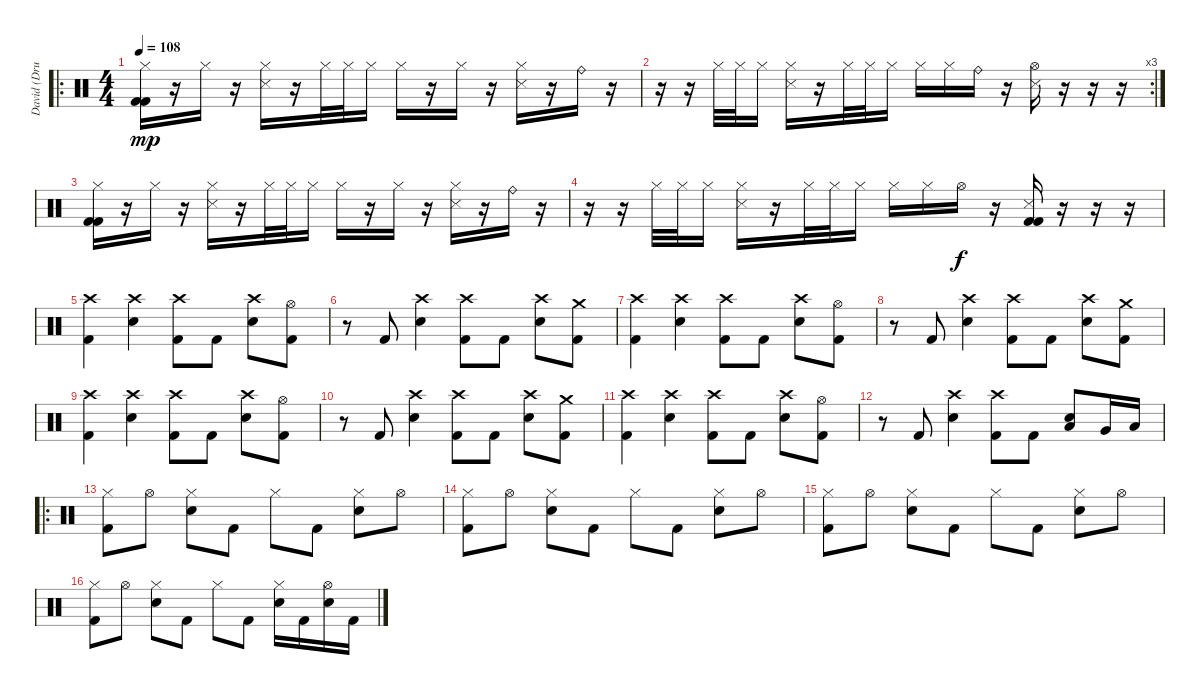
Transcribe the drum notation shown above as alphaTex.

\track ("David (Drumkit)" "David (Dru") {instrument percussion}
\staff {score}
\articulation defaults
\ro
\ts (4 4)
\tempo 108
\clef neutral
\ks c
("Hi-Hat (closed)" "Kick (hit) 2" "Kick (hit) 2").16{dy mp volume 7} r.16 "Hi-Hat (closed)".16 r.16 ("Hi-Hat (closed)" "Snare (side stick) 3").16 r.16 "Hi-Hat (closed)".32 "Hi-Hat (closed)".32 "Hi-Hat (closed)".16 "Hi-Hat (closed)".16 r.16 "Hi-Hat (closed)".16 r.16 ("Hi-Hat (closed)" "Snare (side stick) 3").16 r.16 "Ride (bell)".16 r.16 |
\rc 3
r.16{volume 7} r.16 "Hi-Hat (closed)".32 "Hi-Hat (closed)".32 "Hi-Hat (closed)".16 ("Hi-Hat (closed)" "Snare (side stick) 3").16 r.16 "Hi-Hat (closed)".32 "Hi-Hat (closed)".32 "Hi-Hat (closed)".16 "Hi-Hat (closed)".16 "Hi-Hat (closed)".16 "Ride (bell)".16 r.16 ("Hi-Hat (open)" "Snare (side stick) 3").16 r.16 r.16 r.16 |
("Hi-Hat (closed)" "Kick (hit) 2" "Kick (hit) 2").16{volume 7} r.16 "Hi-Hat (closed)".16 r.16 ("Hi-Hat (closed)" "Snare (side stick) 3").16 r.16 "Hi-Hat (closed)".32 "Hi-Hat (closed)".32 "Hi-Hat (closed)".16 "Hi-Hat (closed)".16 r.16 "Hi-Hat (closed)".16 r.16 ("Hi-Hat (closed)" "Snare (side stick) 3").16 r.16 "Ride (bell)".16 r.16 |
r.16{volume 7} r.16 "Hi-Hat (closed)".32 "Hi-Hat (closed)".32 "Hi-Hat (closed)".16 ("Hi-Hat (closed)" "Snare (side stick) 3").16 r.16 "Hi-Hat (closed)".32 "Hi-Hat (closed)".32 "Hi-Hat (closed)".16 "Hi-Hat (closed)".16 "Hi-Hat (closed)".16 "Hi-Hat (open)".16{dy f} r.16 ("Snare (side stick) 3" "Kick (hit) 2" "Kick (hit) 2").16{volume 13} r.16 r.16 r.16 |
("Crash high (hit)" "Kick (hit) 2").4 ("Crash high (hit)" "Electric Snare (hit)").4 ("Crash high (hit)" "Kick (hit) 2").8 "Kick (hit) 2".8 ("Crash high (hit)" "Electric Snare (hit)").8 ("Hi-Hat (open)" "Kick (hit) 2").8 |
r.8 "Kick (hit) 2".8 ("Crash high (hit)" "Electric Snare (hit)").4 ("Crash high (hit)" "Kick (hit) 2").8 "Kick (hit) 2".8 ("Crash high (hit)" "Electric Snare (hit)").8 ("Crash medium (hit)" "Kick (hit) 2").8 |
("Crash high (hit)" "Kick (hit) 2").4 ("Crash high (hit)" "Electric Snare (hit)").4 ("Crash high (hit)" "Kick (hit) 2").8 "Kick (hit) 2".8 ("Crash high (hit)" "Electric Snare (hit)").8 ("Hi-Hat (open)" "Kick (hit) 2").8 |
r.8 "Kick (hit) 2".8 ("Crash high (hit)" "Electric Snare (hit)").4 ("Crash high (hit)" "Kick (hit) 2").8 "Kick (hit) 2".8 ("Crash high (hit)" "Electric Snare (hit)").8 ("Crash medium (hit)" "Kick (hit) 2").8 |
("Crash high (hit)" "Kick (hit) 2").4 ("Crash high (hit)" "Electric Snare (hit)").4 ("Crash high (hit)" "Kick (hit) 2").8 "Kick (hit) 2".8 ("Crash high (hit)" "Electric Snare (hit)").8 ("Hi-Hat (open)" "Kick (hit) 2").8 |
r.8 "Kick (hit) 2".8 ("Crash high (hit)" "Electric Snare (hit)").4 ("Crash high (hit)" "Kick (hit) 2").8 "Kick (hit) 2".8 ("Crash high (hit)" "Electric Snare (hit)").8 ("Crash medium (hit)" "Kick (hit) 2").8 |
("Crash high (hit)" "Kick (hit) 2").4 ("Crash high (hit)" "Electric Snare (hit)").4 ("Crash high (hit)" "Kick (hit) 2").8 "Kick (hit) 2".8 ("Crash high (hit)" "Electric Snare (hit)").8 ("Hi-Hat (open)" "Kick (hit) 2").8 |
r.8 "Kick (hit) 2".8 ("Crash high (hit)" "Electric Snare (hit)").4 ("Crash high (hit)" "Kick (hit) 2").8 "Kick (hit) 2".8 ("Low Tom (hit)" "Electric Snare (hit)").8 "Very Low Tom (hit)".16 "Low Floor Tom (hit)".16 |
\ro
("Hi-Hat (closed)" "Kick (hit) 2").8 "Hi-Hat (open)".8 ("Hi-Hat (closed)" "Electric Snare (hit)").8 "Kick (hit) 2".8 "Hi-Hat (closed)".8 "Kick (hit) 2".8 ("Hi-Hat (closed)" "Electric Snare (hit)").8 "Hi-Hat (open)".8 |
("Hi-Hat (closed)" "Kick (hit) 2").8 "Hi-Hat (open)".8 ("Hi-Hat (closed)" "Electric Snare (hit)").8 "Kick (hit) 2".8 "Hi-Hat (closed)".8 "Kick (hit) 2".8 ("Hi-Hat (closed)" "Electric Snare (hit)").8 "Hi-Hat (open)".8 |
("Hi-Hat (closed)" "Kick (hit) 2").8 "Hi-Hat (open)".8 ("Hi-Hat (closed)" "Electric Snare (hit)").8 "Kick (hit) 2".8 "Hi-Hat (closed)".8 "Kick (hit) 2".8 ("Hi-Hat (closed)" "Electric Snare (hit)").8 "Hi-Hat (open)".8 |
("Hi-Hat (closed)" "Kick (hit) 2").8 "Hi-Hat (open)".8 ("Hi-Hat (closed)" "Electric Snare (hit)").8 "Kick (hit) 2".8 "Hi-Hat (closed)".8 "Kick (hit) 2".8 ("Hi-Hat (closed)" "Electric Snare (hit)").16 "Kick (hit) 2".16 ("Hi-Hat (open)" "Electric Snare (hit)").16 "Kick (hit) 2".16
